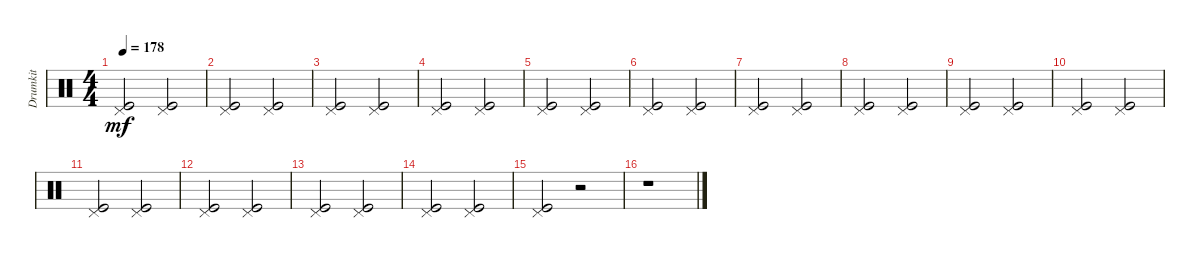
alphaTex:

\track ("Drumkit" "Drumkit") {instrument percussion}
\staff {score}
\articulation defaults
\ts (4 4)
\tempo 178
\clef neutral
\ks c
("Kick (hit)" "Pedal Hi-Hat (hit)").2{dy mf} ("Kick (hit)" "Pedal Hi-Hat (hit)").2 |
("Kick (hit)" "Pedal Hi-Hat (hit)").2 ("Kick (hit)" "Pedal Hi-Hat (hit)").2 |
("Kick (hit)" "Pedal Hi-Hat (hit)").2 ("Kick (hit)" "Pedal Hi-Hat (hit)").2 |
("Kick (hit)" "Pedal Hi-Hat (hit)").2 ("Kick (hit)" "Pedal Hi-Hat (hit)").2 |
("Kick (hit)" "Pedal Hi-Hat (hit)").2 ("Kick (hit)" "Pedal Hi-Hat (hit)").2 |
("Kick (hit)" "Pedal Hi-Hat (hit)").2 ("Kick (hit)" "Pedal Hi-Hat (hit)").2 |
("Kick (hit)" "Pedal Hi-Hat (hit)").2 ("Kick (hit)" "Pedal Hi-Hat (hit)").2 |
("Kick (hit)" "Pedal Hi-Hat (hit)").2 ("Kick (hit)" "Pedal Hi-Hat (hit)").2 |
("Kick (hit)" "Pedal Hi-Hat (hit)").2 ("Kick (hit)" "Pedal Hi-Hat (hit)").2 |
("Kick (hit)" "Pedal Hi-Hat (hit)").2 ("Kick (hit)" "Pedal Hi-Hat (hit)").2 |
("Kick (hit)" "Pedal Hi-Hat (hit)").2 ("Kick (hit)" "Pedal Hi-Hat (hit)").2 |
("Kick (hit)" "Pedal Hi-Hat (hit)").2 ("Kick (hit)" "Pedal Hi-Hat (hit)").2 |
("Kick (hit)" "Pedal Hi-Hat (hit)").2 ("Kick (hit)" "Pedal Hi-Hat (hit)").2 |
("Kick (hit)" "Pedal Hi-Hat (hit)").2 ("Kick (hit)" "Pedal Hi-Hat (hit)").2 |
("Kick (hit)" "Pedal Hi-Hat (hit)").2 r.2 |
r.1
